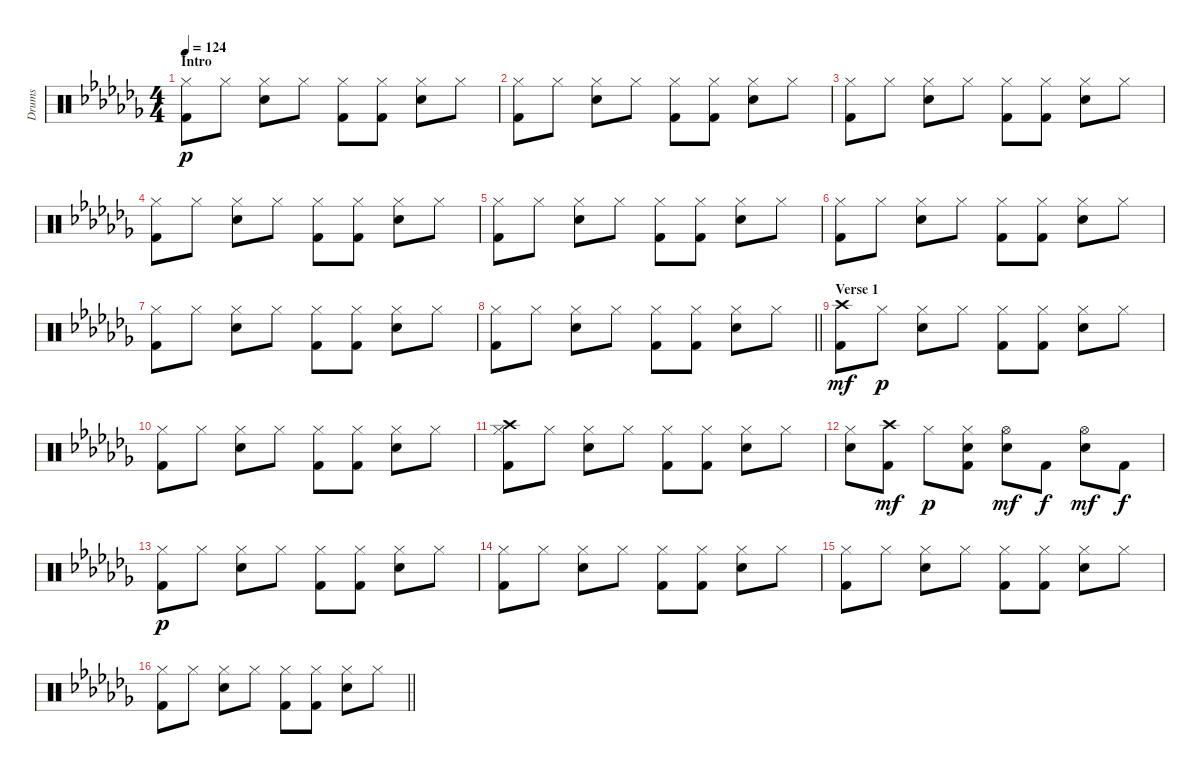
\track ("Drums" "Drums") {instrument percussion}
\staff {score}
\articulation defaults
\ts (4 4)
\section ("" "Intro")
\tempo 124
\clef neutral
\ks cb
("Hi-Hat (closed)" "Kick (hit) 2").8{dy p} "Hi-Hat (closed)".8 ("Hi-Hat (closed)" "Electric Snare (hit)").8 "Hi-Hat (closed)".8 ("Hi-Hat (closed)" "Kick (hit) 2").8 ("Hi-Hat (closed)" "Kick (hit) 2").8 ("Hi-Hat (closed)" "Electric Snare (hit)").8 "Hi-Hat (closed)".8 |
("Hi-Hat (closed)" "Kick (hit) 2").8 "Hi-Hat (closed)".8 ("Hi-Hat (closed)" "Electric Snare (hit)").8 "Hi-Hat (closed)".8 ("Hi-Hat (closed)" "Kick (hit) 2").8 ("Hi-Hat (closed)" "Kick (hit) 2").8 ("Hi-Hat (closed)" "Electric Snare (hit)").8 "Hi-Hat (closed)".8 |
("Hi-Hat (closed)" "Kick (hit) 2").8 "Hi-Hat (closed)".8 ("Hi-Hat (closed)" "Electric Snare (hit)").8 "Hi-Hat (closed)".8 ("Hi-Hat (closed)" "Kick (hit) 2").8 ("Hi-Hat (closed)" "Kick (hit) 2").8 ("Hi-Hat (closed)" "Electric Snare (hit)").8 "Hi-Hat (closed)".8 |
("Hi-Hat (closed)" "Kick (hit) 2").8 "Hi-Hat (closed)".8 ("Hi-Hat (closed)" "Electric Snare (hit)").8 "Hi-Hat (closed)".8 ("Hi-Hat (closed)" "Kick (hit) 2").8 ("Hi-Hat (closed)" "Kick (hit) 2").8 ("Hi-Hat (closed)" "Electric Snare (hit)").8 "Hi-Hat (closed)".8 |
("Hi-Hat (closed)" "Kick (hit) 2").8 "Hi-Hat (closed)".8 ("Hi-Hat (closed)" "Electric Snare (hit)").8 "Hi-Hat (closed)".8 ("Hi-Hat (closed)" "Kick (hit) 2").8 ("Hi-Hat (closed)" "Kick (hit) 2").8 ("Hi-Hat (closed)" "Electric Snare (hit)").8 "Hi-Hat (closed)".8 |
("Hi-Hat (closed)" "Kick (hit) 2").8 "Hi-Hat (closed)".8 ("Hi-Hat (closed)" "Electric Snare (hit)").8 "Hi-Hat (closed)".8 ("Hi-Hat (closed)" "Kick (hit) 2").8 ("Hi-Hat (closed)" "Kick (hit) 2").8 ("Hi-Hat (closed)" "Electric Snare (hit)").8 "Hi-Hat (closed)".8 |
("Hi-Hat (closed)" "Kick (hit) 2").8 "Hi-Hat (closed)".8 ("Hi-Hat (closed)" "Electric Snare (hit)").8 "Hi-Hat (closed)".8 ("Hi-Hat (closed)" "Kick (hit) 2").8 ("Hi-Hat (closed)" "Kick (hit) 2").8 ("Hi-Hat (closed)" "Electric Snare (hit)").8 "Hi-Hat (closed)".8 |
\barLineRight lightlight
("Hi-Hat (closed)" "Kick (hit) 2").8 "Hi-Hat (closed)".8 ("Hi-Hat (closed)" "Electric Snare (hit)").8 "Hi-Hat (closed)".8 ("Hi-Hat (closed)" "Kick (hit) 2").8 ("Hi-Hat (closed)" "Kick (hit) 2").8 ("Hi-Hat (closed)" "Electric Snare (hit)").8 "Hi-Hat (closed)".8 |
\section ("" "Verse 1")
("Crash high (hit)" "Kick (hit) 2").8{dy mf} "Hi-Hat (closed)".8{dy p} ("Hi-Hat (closed)" "Electric Snare (hit)").8 "Hi-Hat (closed)".8 ("Hi-Hat (closed)" "Kick (hit) 2").8 ("Hi-Hat (closed)" "Kick (hit) 2").8 ("Hi-Hat (closed)" "Electric Snare (hit)").8 "Hi-Hat (closed)".8 |
("Hi-Hat (closed)" "Kick (hit) 2").8 "Hi-Hat (closed)".8 ("Hi-Hat (closed)" "Electric Snare (hit)").8 "Hi-Hat (closed)".8 ("Hi-Hat (closed)" "Kick (hit) 2").8 ("Hi-Hat (closed)" "Kick (hit) 2").8 ("Hi-Hat (closed)" "Electric Snare (hit)").8 "Hi-Hat (closed)".8 |
("Crash high (hit)" "Hi-Hat (closed)" "Kick (hit) 2").8 "Hi-Hat (closed)".8 ("Hi-Hat (closed)" "Electric Snare (hit)").8 "Hi-Hat (closed)".8 ("Hi-Hat (closed)" "Kick (hit) 2").8 ("Hi-Hat (closed)" "Kick (hit) 2").8 ("Hi-Hat (closed)" "Electric Snare (hit)").8 "Hi-Hat (closed)".8 |
("Hi-Hat (closed)" "Electric Snare (hit)").8 ("Crash high (hit)" "Kick (hit) 2").8{dy mf} "Hi-Hat (closed)".8{dy p} ("Hi-Hat (closed)" "Electric Snare (hit)" "Kick (hit) 2").8 ("Hi-Hat (open)" "Electric Snare (hit)").8{dy mf} "Kick (hit) 2".8{dy f} ("Hi-Hat (open)" "Electric Snare (hit)").8{dy mf} "Kick (hit) 2".8{dy f} |
("Hi-Hat (closed)" "Kick (hit) 2").8{dy p} "Hi-Hat (closed)".8 ("Hi-Hat (closed)" "Electric Snare (hit)").8 "Hi-Hat (closed)".8 ("Hi-Hat (closed)" "Kick (hit) 2").8 ("Hi-Hat (closed)" "Kick (hit) 2").8 ("Hi-Hat (closed)" "Electric Snare (hit)").8 "Hi-Hat (closed)".8 |
("Hi-Hat (closed)" "Kick (hit) 2").8 "Hi-Hat (closed)".8 ("Hi-Hat (closed)" "Electric Snare (hit)").8 "Hi-Hat (closed)".8 ("Hi-Hat (closed)" "Kick (hit) 2").8 ("Hi-Hat (closed)" "Kick (hit) 2").8 ("Hi-Hat (closed)" "Electric Snare (hit)").8 "Hi-Hat (closed)".8 |
("Hi-Hat (closed)" "Kick (hit) 2").8 "Hi-Hat (closed)".8 ("Hi-Hat (closed)" "Electric Snare (hit)").8 "Hi-Hat (closed)".8 ("Hi-Hat (closed)" "Kick (hit) 2").8 ("Hi-Hat (closed)" "Kick (hit) 2").8 ("Hi-Hat (closed)" "Electric Snare (hit)").8 "Hi-Hat (closed)".8 |
\barLineRight lightlight
("Hi-Hat (closed)" "Kick (hit) 2").8 "Hi-Hat (closed)".8 ("Hi-Hat (closed)" "Electric Snare (hit)").8 "Hi-Hat (closed)".8 ("Hi-Hat (closed)" "Kick (hit) 2").8 ("Hi-Hat (closed)" "Kick (hit) 2").8 ("Hi-Hat (closed)" "Electric Snare (hit)").8 "Hi-Hat (closed)".8
